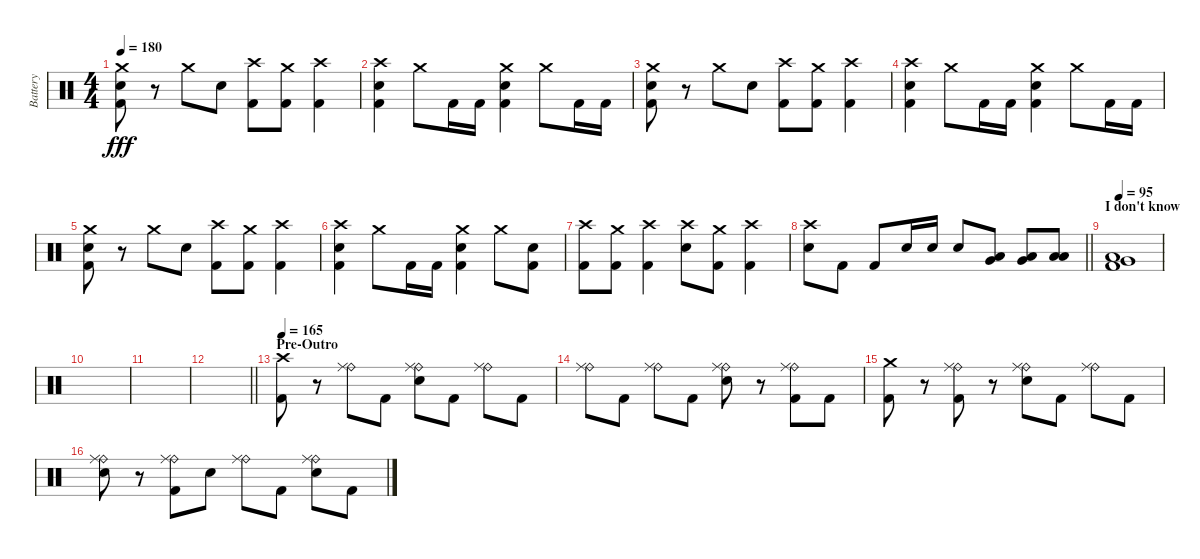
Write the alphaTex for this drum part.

\track ("Battery" "Battery") {instrument percussion}
\staff {score}
\articulation defaults
\ts (4 4)
\tempo 180
\clef neutral
\ks c
("Crash medium (hit)" "Electric Snare (hit)" "Kick (hit) 2").8{dy fff} r.8 "Crash medium (hit)".8 "Electric Snare (hit)".8 ("Crash high (hit)" "Kick (hit) 2").8 ("Crash medium (hit)" "Kick (hit) 2").8 ("Crash high (hit)" "Kick (hit) 2").4 |
("Crash high (hit)" "Electric Snare (hit)" "Kick (hit) 2").4 "Crash medium (hit)".8 "Kick (hit) 2".16 "Kick (hit) 2".16 ("Crash medium (hit)" "Electric Snare (hit)" "Kick (hit) 2").4 "Crash medium (hit)".8 "Kick (hit) 2".16 "Kick (hit) 2".16 |
("Crash medium (hit)" "Electric Snare (hit)" "Kick (hit) 2").8 r.8 "Crash medium (hit)".8 "Electric Snare (hit)".8 ("Crash high (hit)" "Kick (hit) 2").8 ("Crash medium (hit)" "Kick (hit) 2").8 ("Crash high (hit)" "Kick (hit) 2").4 |
("Crash high (hit)" "Electric Snare (hit)" "Kick (hit) 2").4 "Crash medium (hit)".8 "Kick (hit) 2".16 "Kick (hit) 2".16 ("Crash medium (hit)" "Electric Snare (hit)" "Kick (hit) 2").4 "Crash medium (hit)".8 "Kick (hit) 2".16 "Kick (hit) 2".16 |
("Crash medium (hit)" "Electric Snare (hit)" "Kick (hit) 2").8 r.8 "Crash medium (hit)".8 "Electric Snare (hit)".8 ("Crash high (hit)" "Kick (hit) 2").8 ("Crash medium (hit)" "Kick (hit) 2").8 ("Crash high (hit)" "Kick (hit) 2").4 |
("Crash high (hit)" "Electric Snare (hit)" "Kick (hit) 2").4 "Crash medium (hit)".8 "Kick (hit) 2".16 "Kick (hit) 2".16 ("Crash medium (hit)" "Electric Snare (hit)" "Kick (hit) 2").4 "Crash medium (hit)".8 ("Electric Snare (hit)" "Kick (hit) 2").8 |
("Crash high (hit)" "Kick (hit) 2").8 ("Crash medium (hit)" "Kick (hit) 2").8 ("Crash high (hit)" "Kick (hit) 2").4 ("Crash high (hit)" "Electric Snare (hit)").8 ("Crash medium (hit)" "Kick (hit) 2").8 ("Crash high (hit)" "Kick (hit) 2").4 |
\barLineRight lightlight
("Crash high (hit)" "Electric Snare (hit)").8 "Kick (hit) 2".8 "Kick (hit) 2".8 "Electric Snare (hit)".16 "Electric Snare (hit)".16 "Electric Snare (hit)".8 ("Low Tom (hit)" "Very Low Tom (hit)").8 ("Very Low Tom (hit)" "Low Floor Tom (hit)").8 ("Low Floor Tom (hit)" "Low Floor Tom (hit)").8 |
\section ("" "I don't know")
\tempo 95
("Very Low Tom (hit)" "Low Floor Tom (hit)" "Kick (hit) 2").1 |
|
|
\barLineRight lightlight
|
\section ("" "Pre-Outro")
\tempo 165
("Crash high (hit)" "Kick (hit) 2").8 r.8 ("Ride (bell)" "Ride (middle)").8 "Kick (hit) 2".8 ("Ride (bell)" "Ride (middle)" "Electric Snare (hit)").8 "Kick (hit) 2".8 ("Ride (bell)" "Ride (middle)").8 "Kick (hit) 2".8 |
("Ride (bell)" "Ride (middle)").8 "Kick (hit) 2".8 ("Ride (bell)" "Ride (middle)").8 "Kick (hit) 2".8 ("Ride (bell)" "Ride (middle)" "Electric Snare (hit)").8 r.8 ("Ride (bell)" "Ride (middle)" "Kick (hit) 2").8 "Kick (hit) 2".8 |
("Crash medium (hit)" "Kick (hit) 2").8 r.8 ("Ride (bell)" "Ride (middle)" "Kick (hit) 2").8 r.8 ("Ride (bell)" "Ride (middle)" "Electric Snare (hit)").8 "Kick (hit) 2".8 ("Ride (bell)" "Ride (middle)").8 "Kick (hit) 2".8 |
("Ride (bell)" "Ride (middle)" "Electric Snare (hit)").8 r.8 ("Ride (bell)" "Ride (middle)" "Kick (hit) 2").8 "Electric Snare (hit)".8 ("Ride (bell)" "Ride (middle)").8 "Kick (hit) 2".8 ("Ride (bell)" "Ride (middle)" "Electric Snare (hit)").8 "Kick (hit) 2".8
